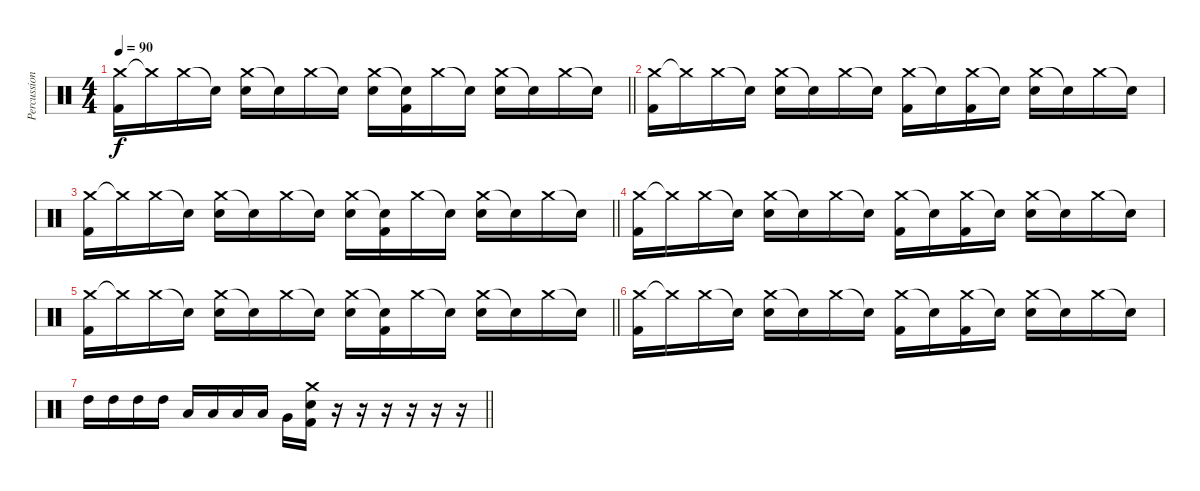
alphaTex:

\track ("Percussion" "Percussion") {instrument percussion}
\staff {score}
\articulation defaults
\ts (4 4)
\tempo 90
\clef neutral
\barLineRight lightlight
\ks c
("Crash medium (hit)" "Kick (hit) 2").16{dy f} "Crash medium (hit)"{t}.16 "Crash medium (hit)".16 "Snare (hit)"{t}.16 ("Crash medium (hit)" "Snare (hit) 2").16 "Snare (hit)"{t}.16 "Crash medium (hit)".16 "Snare (hit)"{t}.16 ("Crash medium (hit)" "Snare (hit) 2").16 ("Snare (hit)"{t} "Kick (hit) 2").16 "Crash medium (hit)".16 "Snare (hit)"{t}.16 ("Crash medium (hit)" "Snare (hit) 2").16 "Snare (hit)"{t}.16 "Crash medium (hit)".16 "Snare (hit)"{t}.16 |
("Crash medium (hit)" "Kick (hit) 2").16 "Crash medium (hit)"{t}.16 "Crash medium (hit)".16 "Snare (hit)"{t}.16 ("Crash medium (hit)" "Snare (hit) 2").16 "Snare (hit)"{t}.16 "Crash medium (hit)".16 "Snare (hit)"{t}.16 ("Crash medium (hit)" "Kick (hit) 2").16 "Snare (hit)"{t}.16 ("Crash medium (hit)" "Kick (hit) 2").16 "Snare (hit)"{t}.16 ("Crash medium (hit)" "Snare (hit) 2").16 "Snare (hit)"{t}.16 "Crash medium (hit)".16 "Snare (hit)"{t}.16 |
\barLineRight lightlight
("Crash medium (hit)" "Kick (hit) 2").16 "Crash medium (hit)"{t}.16 "Crash medium (hit)".16 "Snare (hit)"{t}.16 ("Crash medium (hit)" "Snare (hit) 2").16 "Snare (hit)"{t}.16 "Crash medium (hit)".16 "Snare (hit)"{t}.16 ("Crash medium (hit)" "Snare (hit) 2").16 ("Snare (hit)"{t} "Kick (hit) 2").16 "Crash medium (hit)".16 "Snare (hit)"{t}.16 ("Crash medium (hit)" "Snare (hit) 2").16 "Snare (hit)"{t}.16 "Crash medium (hit)".16 "Snare (hit)"{t}.16 |
("Crash medium (hit)" "Kick (hit) 2").16 "Crash medium (hit)"{t}.16 "Crash medium (hit)".16 "Snare (hit)"{t}.16 ("Crash medium (hit)" "Snare (hit) 2").16 "Snare (hit)"{t}.16 "Crash medium (hit)".16 "Snare (hit)"{t}.16 ("Crash medium (hit)" "Kick (hit) 2").16 "Snare (hit)"{t}.16 ("Crash medium (hit)" "Kick (hit) 2").16 "Snare (hit)"{t}.16 ("Crash medium (hit)" "Snare (hit) 2").16 "Snare (hit)"{t}.16 "Crash medium (hit)".16 "Snare (hit)"{t}.16 |
\barLineRight lightlight
("Crash medium (hit)" "Kick (hit) 2").16 "Crash medium (hit)"{t}.16 "Crash medium (hit)".16 "Snare (hit)"{t}.16 ("Crash medium (hit)" "Snare (hit) 2").16 "Snare (hit)"{t}.16 "Crash medium (hit)".16 "Snare (hit)"{t}.16 ("Crash medium (hit)" "Snare (hit) 2").16 ("Snare (hit)"{t} "Kick (hit) 2").16 "Crash medium (hit)".16 "Snare (hit)"{t}.16 ("Crash medium (hit)" "Snare (hit) 2").16 "Snare (hit)"{t}.16 "Crash medium (hit)".16 "Snare (hit)"{t}.16 |
("Crash medium (hit)" "Kick (hit) 2").16 "Crash medium (hit)"{t}.16 "Crash medium (hit)".16 "Snare (hit)"{t}.16 ("Crash medium (hit)" "Snare (hit) 2").16 "Snare (hit)"{t}.16 "Crash medium (hit)".16 "Snare (hit)"{t}.16 ("Crash medium (hit)" "Kick (hit) 2").16 "Snare (hit)"{t}.16 ("Crash medium (hit)" "Kick (hit) 2").16 "Snare (hit)"{t}.16 ("Crash medium (hit)" "Snare (hit) 2").16 "Snare (hit)"{t}.16 "Crash medium (hit)".16 "Snare (hit)"{t}.16 |
\barLineRight lightlight "High Tom (hit)".16 "High Tom (hit)".16 "High Tom (hit)".16 "High Tom (hit)".16 "Low Tom (hit)".16 "Low Tom (hit)".16 "Low Tom (hit)".16 "Low Tom (hit)".16 "Very Low Tom (hit)".16
("Crash medium (hit)" "Snare (hit) 2" "Kick (hit) 2").16 r.16 r.16 r.16 r.16 r.16 r.16
